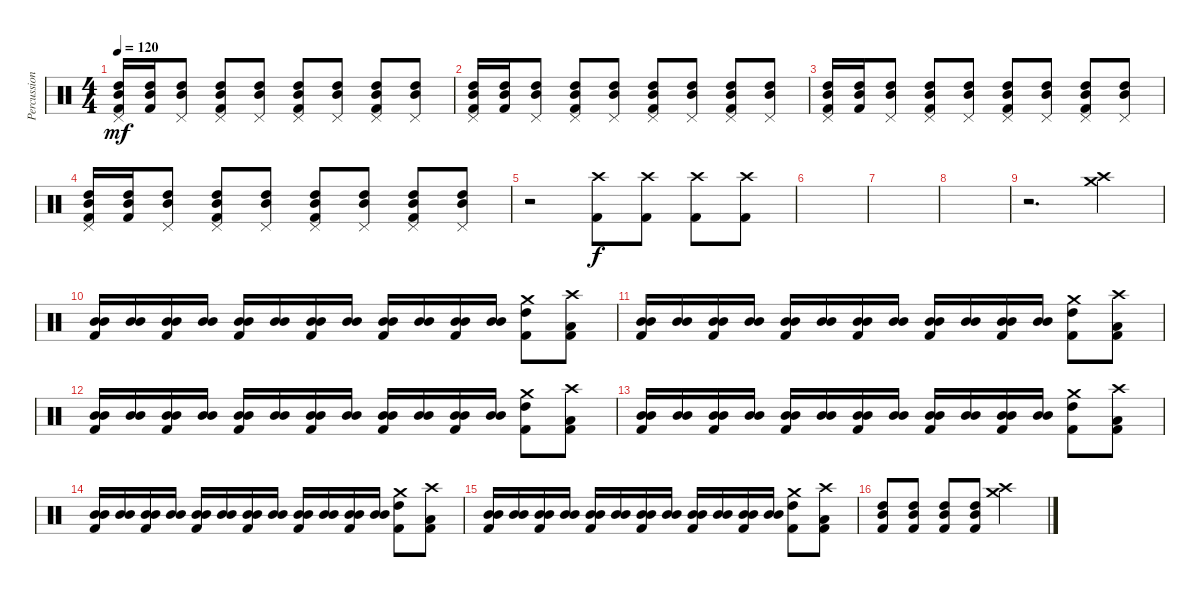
\track ("Percussion" "Percussion") {instrument percussion}
\staff {score}
\articulation defaults
\ts (4 4)
\tempo 120
\clef neutral
\ks c
("Pedal Hi-Hat (hit)" "High Tom (hit)" "Mid Tom (hit)" "Kick (hit) 2").16{dy mf} ("High Tom (hit)" "Mid Tom (hit)" "Kick (hit) 2").16 ("Pedal Hi-Hat (hit)" "High Tom (hit)" "Mid Tom (hit)").8 ("Pedal Hi-Hat (hit)" "High Tom (hit)" "Mid Tom (hit)" "Kick (hit) 2").8 ("Pedal Hi-Hat (hit)" "High Tom (hit)" "Mid Tom (hit)").8 ("Pedal Hi-Hat (hit)" "High Tom (hit)" "Mid Tom (hit)" "Kick (hit) 2").8 ("Pedal Hi-Hat (hit)" "High Tom (hit)" "Mid Tom (hit)").8 ("Pedal Hi-Hat (hit)" "High Tom (hit)" "Mid Tom (hit)" "Kick (hit) 2").8 ("Pedal Hi-Hat (hit)" "High Tom (hit)" "Mid Tom (hit)").8 |
("Pedal Hi-Hat (hit)" "High Tom (hit)" "Mid Tom (hit)" "Kick (hit) 2").16 ("High Tom (hit)" "Mid Tom (hit)" "Kick (hit) 2").16 ("Pedal Hi-Hat (hit)" "High Tom (hit)" "Mid Tom (hit)").8 ("Pedal Hi-Hat (hit)" "High Tom (hit)" "Mid Tom (hit)" "Kick (hit) 2").8 ("Pedal Hi-Hat (hit)" "High Tom (hit)" "Mid Tom (hit)").8 ("Pedal Hi-Hat (hit)" "High Tom (hit)" "Mid Tom (hit)" "Kick (hit) 2").8 ("Pedal Hi-Hat (hit)" "High Tom (hit)" "Mid Tom (hit)").8 ("Pedal Hi-Hat (hit)" "High Tom (hit)" "Mid Tom (hit)" "Kick (hit) 2").8 ("Pedal Hi-Hat (hit)" "High Tom (hit)" "Mid Tom (hit)").8 |
("Pedal Hi-Hat (hit)" "High Tom (hit)" "Mid Tom (hit)" "Kick (hit) 2").16 ("High Tom (hit)" "Mid Tom (hit)" "Kick (hit) 2").16 ("Pedal Hi-Hat (hit)" "High Tom (hit)" "Mid Tom (hit)").8 ("Pedal Hi-Hat (hit)" "High Tom (hit)" "Mid Tom (hit)" "Kick (hit) 2").8 ("Pedal Hi-Hat (hit)" "High Tom (hit)" "Mid Tom (hit)").8 ("Pedal Hi-Hat (hit)" "High Tom (hit)" "Mid Tom (hit)" "Kick (hit) 2").8 ("Pedal Hi-Hat (hit)" "High Tom (hit)" "Mid Tom (hit)").8 ("Pedal Hi-Hat (hit)" "High Tom (hit)" "Mid Tom (hit)" "Kick (hit) 2").8 ("Pedal Hi-Hat (hit)" "High Tom (hit)" "Mid Tom (hit)").8 |
("Pedal Hi-Hat (hit)" "High Tom (hit)" "Mid Tom (hit)" "Kick (hit) 2").16 ("High Tom (hit)" "Mid Tom (hit)" "Kick (hit) 2").16 ("Pedal Hi-Hat (hit)" "High Tom (hit)" "Mid Tom (hit)").8 ("Pedal Hi-Hat (hit)" "High Tom (hit)" "Mid Tom (hit)" "Kick (hit) 2").8 ("Pedal Hi-Hat (hit)" "High Tom (hit)" "Mid Tom (hit)").8 ("Pedal Hi-Hat (hit)" "High Tom (hit)" "Mid Tom (hit)" "Kick (hit) 2").8 ("Pedal Hi-Hat (hit)" "High Tom (hit)" "Mid Tom (hit)").8 ("Pedal Hi-Hat (hit)" "High Tom (hit)" "Mid Tom (hit)" "Kick (hit) 2").8 ("Pedal Hi-Hat (hit)" "High Tom (hit)" "Mid Tom (hit)").8 |
r.2 ("Crash high (hit)" "Kick (hit) 2").8{dy f} ("Crash high (hit)" "Kick (hit) 2").8 ("Crash high (hit)" "Kick (hit) 2").8 ("Crash high (hit)" "Kick (hit) 2").8 |
|
|
|
r.2{d} ("Crash high (hit)" "Crash medium (hit)").4 |
("Mid Tom (hit)" "Mid Tom (hit)" "Kick (hit) 2").16 ("Mid Tom (hit)" "Mid Tom (hit)").16 ("Mid Tom (hit)" "Mid Tom (hit)" "Kick (hit) 2").16 ("Mid Tom (hit)" "Mid Tom (hit)").16 ("Mid Tom (hit)" "Mid Tom (hit)" "Kick (hit) 2").16 ("Mid Tom (hit)" "Mid Tom (hit)").16 ("Mid Tom (hit)" "Mid Tom (hit)" "Kick (hit) 2").16 ("Mid Tom (hit)" "Mid Tom (hit)").16 ("Mid Tom (hit)" "Mid Tom (hit)" "Kick (hit) 2").16 ("Mid Tom (hit)" "Mid Tom (hit)").16 ("Mid Tom (hit)" "Mid Tom (hit)" "Kick (hit) 2").16 ("Mid Tom (hit)" "Mid Tom (hit)").16 ("Crash medium (hit)" "High Tom (hit)" "Kick (hit) 2").8 ("Crash high (hit)" "Low Tom (hit)" "Kick (hit) 2").8 |
("Mid Tom (hit)" "Mid Tom (hit)" "Kick (hit) 2").16 ("Mid Tom (hit)" "Mid Tom (hit)").16 ("Mid Tom (hit)" "Mid Tom (hit)" "Kick (hit) 2").16 ("Mid Tom (hit)" "Mid Tom (hit)").16 ("Mid Tom (hit)" "Mid Tom (hit)" "Kick (hit) 2").16 ("Mid Tom (hit)" "Mid Tom (hit)").16 ("Mid Tom (hit)" "Mid Tom (hit)" "Kick (hit) 2").16 ("Mid Tom (hit)" "Mid Tom (hit)").16 ("Mid Tom (hit)" "Mid Tom (hit)" "Kick (hit) 2").16 ("Mid Tom (hit)" "Mid Tom (hit)").16 ("Mid Tom (hit)" "Mid Tom (hit)" "Kick (hit) 2").16 ("Mid Tom (hit)" "Mid Tom (hit)").16 ("Crash medium (hit)" "High Tom (hit)" "Kick (hit) 2").8 ("Crash high (hit)" "Low Tom (hit)" "Kick (hit) 2").8 |
("Mid Tom (hit)" "Mid Tom (hit)" "Kick (hit) 2").16 ("Mid Tom (hit)" "Mid Tom (hit)").16 ("Mid Tom (hit)" "Mid Tom (hit)" "Kick (hit) 2").16 ("Mid Tom (hit)" "Mid Tom (hit)").16 ("Mid Tom (hit)" "Mid Tom (hit)" "Kick (hit) 2").16 ("Mid Tom (hit)" "Mid Tom (hit)").16 ("Mid Tom (hit)" "Mid Tom (hit)" "Kick (hit) 2").16 ("Mid Tom (hit)" "Mid Tom (hit)").16 ("Mid Tom (hit)" "Mid Tom (hit)" "Kick (hit) 2").16 ("Mid Tom (hit)" "Mid Tom (hit)").16 ("Mid Tom (hit)" "Mid Tom (hit)" "Kick (hit) 2").16 ("Mid Tom (hit)" "Mid Tom (hit)").16 ("Crash medium (hit)" "High Tom (hit)" "Kick (hit) 2").8 ("Crash high (hit)" "Low Tom (hit)" "Kick (hit) 2").8 |
("Mid Tom (hit)" "Mid Tom (hit)" "Kick (hit) 2").16 ("Mid Tom (hit)" "Mid Tom (hit)").16 ("Mid Tom (hit)" "Mid Tom (hit)" "Kick (hit) 2").16 ("Mid Tom (hit)" "Mid Tom (hit)").16 ("Mid Tom (hit)" "Mid Tom (hit)" "Kick (hit) 2").16 ("Mid Tom (hit)" "Mid Tom (hit)").16 ("Mid Tom (hit)" "Mid Tom (hit)" "Kick (hit) 2").16 ("Mid Tom (hit)" "Mid Tom (hit)").16 ("Mid Tom (hit)" "Mid Tom (hit)" "Kick (hit) 2").16 ("Mid Tom (hit)" "Mid Tom (hit)").16 ("Mid Tom (hit)" "Mid Tom (hit)" "Kick (hit) 2").16 ("Mid Tom (hit)" "Mid Tom (hit)").16 ("Crash medium (hit)" "High Tom (hit)" "Kick (hit) 2").8 ("Crash high (hit)" "Low Tom (hit)" "Kick (hit) 2").8 |
("Mid Tom (hit)" "Mid Tom (hit)" "Kick (hit) 2").16 ("Mid Tom (hit)" "Mid Tom (hit)").16 ("Mid Tom (hit)" "Mid Tom (hit)" "Kick (hit) 2").16 ("Mid Tom (hit)" "Mid Tom (hit)").16 ("Mid Tom (hit)" "Mid Tom (hit)" "Kick (hit) 2").16 ("Mid Tom (hit)" "Mid Tom (hit)").16 ("Mid Tom (hit)" "Mid Tom (hit)" "Kick (hit) 2").16 ("Mid Tom (hit)" "Mid Tom (hit)").16 ("Mid Tom (hit)" "Mid Tom (hit)" "Kick (hit) 2").16 ("Mid Tom (hit)" "Mid Tom (hit)").16 ("Mid Tom (hit)" "Mid Tom (hit)" "Kick (hit) 2").16 ("Mid Tom (hit)" "Mid Tom (hit)").16 ("Crash medium (hit)" "High Tom (hit)" "Kick (hit) 2").8 ("Crash high (hit)" "Low Tom (hit)" "Kick (hit) 2").8 |
("Mid Tom (hit)" "Mid Tom (hit)" "Kick (hit) 2").16 ("Mid Tom (hit)" "Mid Tom (hit)").16 ("Mid Tom (hit)" "Mid Tom (hit)" "Kick (hit) 2").16 ("Mid Tom (hit)" "Mid Tom (hit)").16 ("Mid Tom (hit)" "Mid Tom (hit)" "Kick (hit) 2").16 ("Mid Tom (hit)" "Mid Tom (hit)").16 ("Mid Tom (hit)" "Mid Tom (hit)" "Kick (hit) 2").16 ("Mid Tom (hit)" "Mid Tom (hit)").16 ("Mid Tom (hit)" "Mid Tom (hit)" "Kick (hit) 2").16 ("Mid Tom (hit)" "Mid Tom (hit)").16 ("Mid Tom (hit)" "Mid Tom (hit)" "Kick (hit) 2").16 ("Mid Tom (hit)" "Mid Tom (hit)").16 ("Crash medium (hit)" "High Tom (hit)" "Kick (hit) 2").8 ("Crash high (hit)" "Low Tom (hit)" "Kick (hit) 2").8 |
("High Tom (hit)" "Mid Tom (hit)" "Kick (hit) 2").8 ("High Tom (hit)" "Mid Tom (hit)" "Kick (hit) 2").8 ("High Tom (hit)" "Mid Tom (hit)" "Kick (hit) 2").8 ("High Tom (hit)" "Mid Tom (hit)" "Kick (hit) 2").8 ("Crash high (hit)" "Crash medium (hit)").2
